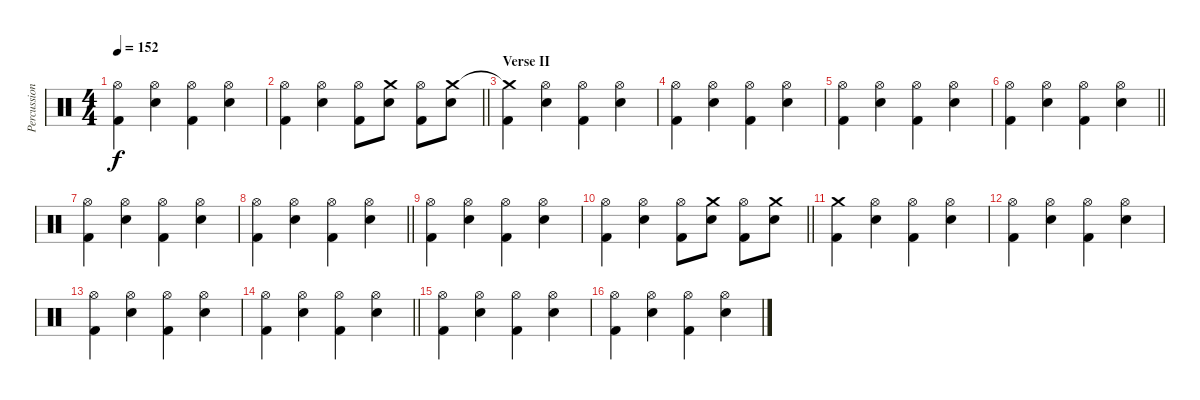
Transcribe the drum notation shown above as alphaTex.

\track ("Percussion" "Percussion") {instrument percussion}
\staff {score}
\articulation defaults
\ts (4 4)
\tempo 152
\clef neutral
\ks c
("Hi-Hat (open)" "Kick (hit) 2").4{dy f} ("Hi-Hat (open)" "Electric Snare (hit)").4 ("Hi-Hat (open)" "Kick (hit) 2").4 ("Hi-Hat (open)" "Electric Snare (hit)").4 |
\barLineRight lightlight
("Hi-Hat (open)" "Kick (hit) 2").4 ("Hi-Hat (open)" "Electric Snare (hit)").4 ("Hi-Hat (open)" "Kick (hit) 2").8 ("Crash medium (hit)" "Electric Snare (hit)").8 ("Hi-Hat (open)" "Kick (hit) 2").8 ("Crash medium (hit)" "Electric Snare (hit)").8 |
\section ("" "Verse II")
("Crash medium (hit)"{t} "Kick (hit) 2").4 ("Hi-Hat (open)" "Electric Snare (hit)").4 ("Hi-Hat (open)" "Kick (hit) 2").4 ("Hi-Hat (open)" "Electric Snare (hit)").4 |
("Hi-Hat (open)" "Kick (hit) 2").4 ("Hi-Hat (open)" "Electric Snare (hit)").4 ("Hi-Hat (open)" "Kick (hit) 2").4 ("Hi-Hat (open)" "Electric Snare (hit)").4 |
("Hi-Hat (open)" "Kick (hit) 2").4 ("Hi-Hat (open)" "Electric Snare (hit)").4 ("Hi-Hat (open)" "Kick (hit) 2").4 ("Hi-Hat (open)" "Electric Snare (hit)").4 |
\barLineRight lightlight
("Hi-Hat (open)" "Kick (hit) 2").4 ("Hi-Hat (open)" "Electric Snare (hit)").4 ("Hi-Hat (open)" "Kick (hit) 2").4 ("Hi-Hat (open)" "Electric Snare (hit)").4 |
("Hi-Hat (open)" "Kick (hit) 2").4 ("Hi-Hat (open)" "Electric Snare (hit)").4 ("Hi-Hat (open)" "Kick (hit) 2").4 ("Hi-Hat (open)" "Electric Snare (hit)").4 |
\barLineRight lightlight
("Hi-Hat (open)" "Kick (hit) 2").4 ("Hi-Hat (open)" "Electric Snare (hit)").4 ("Hi-Hat (open)" "Kick (hit) 2").4 ("Hi-Hat (open)" "Electric Snare (hit)").4 |
("Hi-Hat (open)" "Kick (hit) 2").4 ("Hi-Hat (open)" "Electric Snare (hit)").4 ("Hi-Hat (open)" "Kick (hit) 2").4 ("Hi-Hat (open)" "Electric Snare (hit)").4 |
\barLineRight lightlight
("Hi-Hat (open)" "Kick (hit) 2").4 ("Hi-Hat (open)" "Electric Snare (hit)").4 ("Hi-Hat (open)" "Kick (hit) 2").8 ("Crash medium (hit)" "Electric Snare (hit)").8 ("Hi-Hat (open)" "Kick (hit) 2").8 ("Crash medium (hit)" "Electric Snare (hit)").8 |
("Crash medium (hit)" "Kick (hit) 2").4 ("Hi-Hat (open)" "Electric Snare (hit)").4 ("Hi-Hat (open)" "Kick (hit) 2").4 ("Hi-Hat (open)" "Electric Snare (hit)").4 |
("Hi-Hat (open)" "Kick (hit) 2").4 ("Hi-Hat (open)" "Electric Snare (hit)").4 ("Hi-Hat (open)" "Kick (hit) 2").4 ("Hi-Hat (open)" "Electric Snare (hit)").4 |
("Hi-Hat (open)" "Kick (hit) 2").4 ("Hi-Hat (open)" "Electric Snare (hit)").4 ("Hi-Hat (open)" "Kick (hit) 2").4 ("Hi-Hat (open)" "Electric Snare (hit)").4 |
\barLineRight lightlight
("Hi-Hat (open)" "Kick (hit) 2").4 ("Hi-Hat (open)" "Electric Snare (hit)").4 ("Hi-Hat (open)" "Kick (hit) 2").4 ("Hi-Hat (open)" "Electric Snare (hit)").4 |
("Hi-Hat (open)" "Kick (hit) 2").4 ("Hi-Hat (open)" "Electric Snare (hit)").4 ("Hi-Hat (open)" "Kick (hit) 2").4 ("Hi-Hat (open)" "Electric Snare (hit)").4 |
("Hi-Hat (open)" "Kick (hit) 2").4 ("Hi-Hat (open)" "Electric Snare (hit)").4 ("Hi-Hat (open)" "Kick (hit) 2").4 ("Hi-Hat (open)" "Electric Snare (hit)").4
